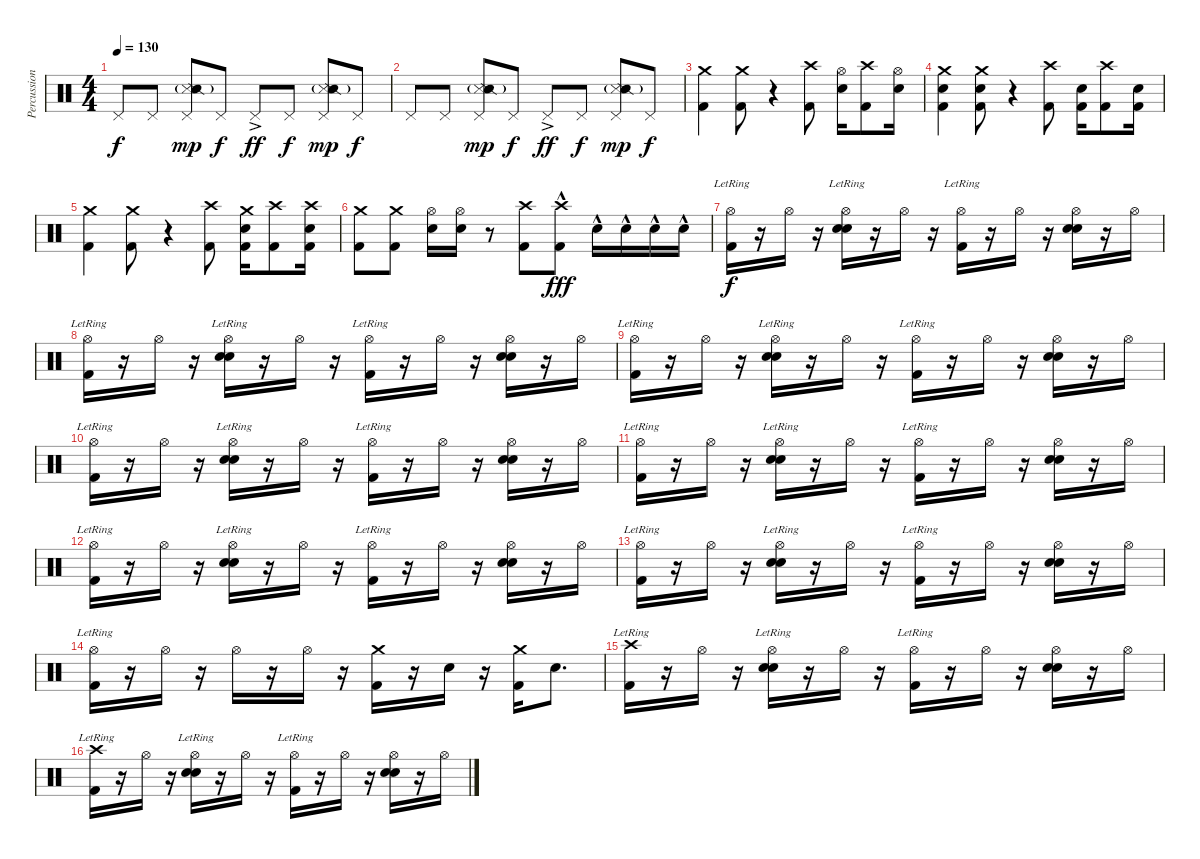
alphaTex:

\track ("Percussion" "Percussion") {instrument percussion}
\staff {score}
\articulation defaults
\ts (4 4)
\tempo 130
\clef neutral
\ks c "Pedal Hi-Hat (hit)".8{dy f} "Pedal Hi-Hat (hit)".8
("Pedal Hi-Hat (hit)" "Snare (side stick) 3" "Snare (side stick) 2"{g}).8{dy mp} "Pedal Hi-Hat (hit)".8{dy f} "Pedal Hi-Hat (hit)"{ac}.8{dy ff} "Pedal Hi-Hat (hit)".8{dy f} ("Pedal Hi-Hat (hit)" "Snare (side stick) 3" "Snare (side stick) 2"{g}).8{dy mp} "Pedal Hi-Hat (hit)".8{dy f} |
"Pedal Hi-Hat (hit)".8 "Pedal Hi-Hat (hit)".8 ("Pedal Hi-Hat (hit)" "Snare (side stick) 3" "Snare (side stick) 2"{g}).8{dy mp} "Pedal Hi-Hat (hit)".8{dy f} "Pedal Hi-Hat (hit)"{ac}.8{dy ff} "Pedal Hi-Hat (hit)".8{dy f} ("Pedal Hi-Hat (hit)" "Snare (side stick) 3" "Snare (side stick) 2"{g}).8{dy mp} "Pedal Hi-Hat (hit)".8{dy f} |
("Crash medium (hit)" "Kick (hit) 2").4 ("Crash medium (hit)" "Kick (hit) 2").8 r.4 ("Crash high (hit)" "Kick (hit) 2").8 ("Electric Snare (hit)" "Hi-Hat (open)").16 ("Crash high (hit)" "Kick (hit) 2").8 ("Electric Snare (hit)" "Hi-Hat (open)").16 |
("Electric Snare (hit)" "Crash medium (hit)" "Kick (hit) 2").4 ("Electric Snare (hit)" "Crash medium (hit)" "Kick (hit) 2").8 r.4 ("Crash high (hit)" "Kick (hit) 2").8 ("Electric Snare (hit)" "Kick (hit) 2").16 ("Crash high (hit)" "Kick (hit) 2").8 ("Electric Snare (hit)" "Kick (hit) 2").16 |
("Crash medium (hit)" "Kick (hit) 2").4 ("Crash medium (hit)" "Kick (hit) 2").8 r.4 ("Crash high (hit)" "Kick (hit) 2").8 ("Electric Snare (hit)" "Crash medium (hit)" "Kick (hit) 2").16 ("Crash high (hit)" "Kick (hit) 2").8 ("Electric Snare (hit)" "Crash high (hit)" "Kick (hit) 2").16 |
("Kick (hit) 2" "Crash medium (hit)").8 ("Kick (hit) 2" "Crash medium (hit)").8 ("Electric Snare (hit)" "Hi-Hat (open)").16 ("Electric Snare (hit)" "Hi-Hat (open)").16 r.8 ("Kick (hit) 2" "Crash high (hit)").8 ("Kick (hit) 2"{hac} "Crash high (hit)"{hac}).8{dy fff} "Electric Snare (hit)"{hac}.16 "Electric Snare (hit)"{hac}.16 "Electric Snare (hit)"{hac}.16 "Electric Snare (hit)"{hac}.16 |
("Hi-Hat (open)"{lr} "Kick (hit) 2").16{dy f} r.16 "Hi-Hat (open)".16 r.16 ("Hi-Hat (open)"{lr} "Snare (hit) 2" "Electric Snare (hit)").16 r.16 "Hi-Hat (open)".16 r.16 ("Hi-Hat (open)"{lr} "Kick (hit) 2").16 r.16 "Hi-Hat (open)".16 r.16 ("Hi-Hat (open)" "Snare (hit) 2" "Electric Snare (hit)").16 r.16 "Hi-Hat (open)".16 |
("Hi-Hat (open)"{lr} "Kick (hit) 2").16 r.16 "Hi-Hat (open)".16 r.16 ("Hi-Hat (open)"{lr} "Snare (hit) 2" "Electric Snare (hit)").16 r.16 "Hi-Hat (open)".16 r.16 ("Hi-Hat (open)"{lr} "Kick (hit) 2").16 r.16 "Hi-Hat (open)".16 r.16 ("Hi-Hat (open)" "Snare (hit) 2" "Electric Snare (hit)").16 r.16 "Hi-Hat (open)".16 |
("Hi-Hat (open)"{lr} "Kick (hit) 2").16 r.16 "Hi-Hat (open)".16 r.16 ("Hi-Hat (open)"{lr} "Snare (hit) 2" "Electric Snare (hit)").16 r.16 "Hi-Hat (open)".16 r.16 ("Hi-Hat (open)"{lr} "Kick (hit) 2").16 r.16 "Hi-Hat (open)".16 r.16 ("Hi-Hat (open)" "Snare (hit) 2" "Electric Snare (hit)").16 r.16 "Hi-Hat (open)".16 |
("Hi-Hat (open)"{lr} "Kick (hit) 2").16 r.16 "Hi-Hat (open)".16 r.16 ("Hi-Hat (open)"{lr} "Snare (hit) 2" "Electric Snare (hit)").16 r.16 "Hi-Hat (open)".16 r.16 ("Hi-Hat (open)"{lr} "Kick (hit) 2").16 r.16 "Hi-Hat (open)".16 r.16 ("Hi-Hat (open)" "Snare (hit) 2" "Electric Snare (hit)").16 r.16 "Hi-Hat (open)".16 |
("Hi-Hat (open)"{lr} "Kick (hit) 2").16 r.16 "Hi-Hat (open)".16 r.16 ("Hi-Hat (open)"{lr} "Snare (hit) 2" "Electric Snare (hit)").16 r.16 "Hi-Hat (open)".16 r.16 ("Hi-Hat (open)"{lr} "Kick (hit) 2").16 r.16 "Hi-Hat (open)".16 r.16 ("Hi-Hat (open)" "Snare (hit) 2" "Electric Snare (hit)").16 r.16 "Hi-Hat (open)".16 |
("Hi-Hat (open)"{lr} "Kick (hit) 2").16 r.16 "Hi-Hat (open)".16 r.16 ("Hi-Hat (open)"{lr} "Snare (hit) 2" "Electric Snare (hit)").16 r.16 "Hi-Hat (open)".16 r.16 ("Hi-Hat (open)"{lr} "Kick (hit) 2").16 r.16 "Hi-Hat (open)".16 r.16 ("Hi-Hat (open)" "Snare (hit) 2" "Electric Snare (hit)").16 r.16 "Hi-Hat (open)".16 |
("Hi-Hat (open)"{lr} "Kick (hit) 2").16 r.16 "Hi-Hat (open)".16 r.16 ("Hi-Hat (open)"{lr} "Snare (hit) 2" "Electric Snare (hit)").16 r.16 "Hi-Hat (open)".16 r.16 ("Hi-Hat (open)"{lr} "Kick (hit) 2").16 r.16 "Hi-Hat (open)".16 r.16 ("Hi-Hat (open)" "Snare (hit) 2" "Electric Snare (hit)").16 r.16 "Hi-Hat (open)".16 |
("Hi-Hat (open)"{lr} "Kick (hit) 2").16 r.16 "Hi-Hat (open)".16 r.16 "Hi-Hat (open)".16 r.16 "Hi-Hat (open)".16 r.16 ("Crash medium (hit)" "Kick (hit) 2").16 r.16 "Snare (hit) 2".16 r.16 ("Crash medium (hit)" "Kick (hit) 2").16 "Snare (hit) 2".8{d} |
("Crash high (hit)"{lr} "Kick (hit) 2").16 r.16 "Hi-Hat (open)".16 r.16 ("Hi-Hat (open)"{lr} "Snare (hit) 2" "Electric Snare (hit)").16 r.16 "Hi-Hat (open)".16 r.16 ("Hi-Hat (open)"{lr} "Kick (hit) 2").16 r.16 "Hi-Hat (open)".16 r.16 ("Hi-Hat (open)" "Snare (hit) 2" "Electric Snare (hit)").16 r.16 "Hi-Hat (open)".16 |
("Crash high (hit)"{lr} "Kick (hit) 2").16 r.16 "Hi-Hat (open)".16 r.16 ("Hi-Hat (open)"{lr} "Snare (hit) 2" "Electric Snare (hit)").16 r.16 "Hi-Hat (open)".16 r.16 ("Hi-Hat (open)"{lr} "Kick (hit) 2").16 r.16 "Hi-Hat (open)".16 r.16 ("Hi-Hat (open)" "Snare (hit) 2" "Electric Snare (hit)").16 r.16 "Hi-Hat (open)".16
